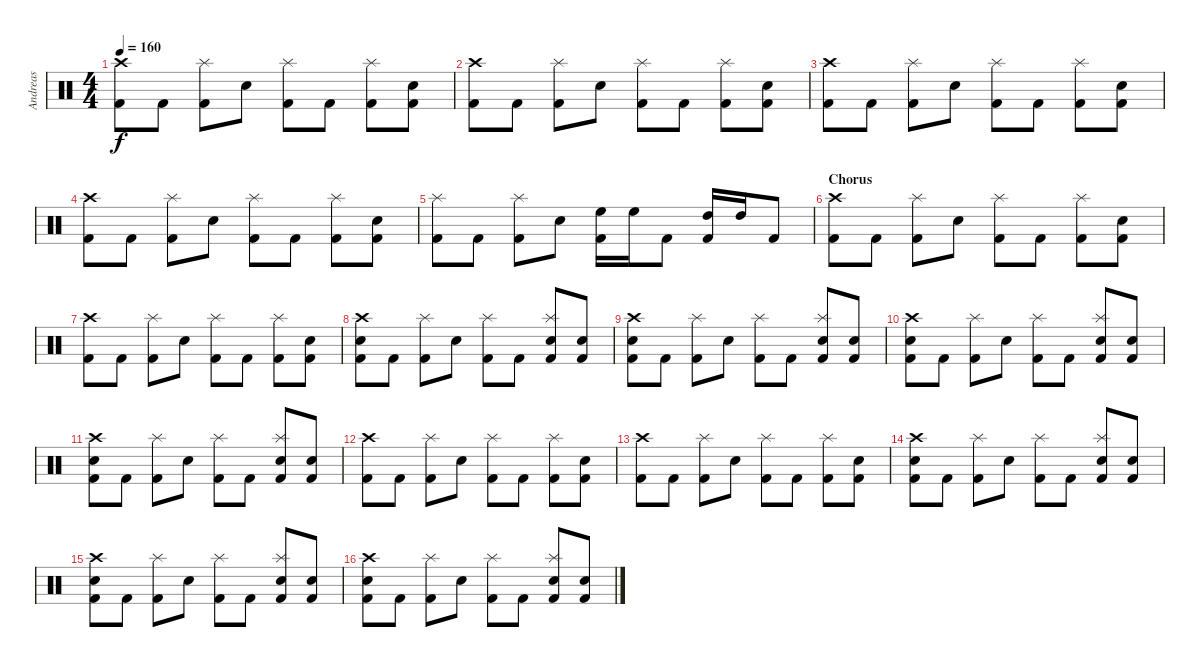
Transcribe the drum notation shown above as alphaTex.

\track ("Andreas" "Andreas") {instrument percussion}
\staff {score}
\articulation defaults
\ts (4 4)
\tempo 160
\clef neutral
\ks c
("Crash high (hit)" "Kick (hit) 2").8{dy f} "Kick (hit) 2".8 ("Splash (hit)" "Kick (hit) 2").8 "Snare (hit) 2".8 ("Splash (hit)" "Kick (hit) 2").8 "Kick (hit) 2".8 ("Splash (hit)" "Kick (hit) 2").8 ("Snare (hit) 2" "Kick (hit) 2").8 |
("Crash high (hit)" "Kick (hit) 2").8 "Kick (hit) 2".8 ("Splash (hit)" "Kick (hit) 2").8 "Snare (hit) 2".8 ("Splash (hit)" "Kick (hit) 2").8 "Kick (hit) 2".8 ("Splash (hit)" "Kick (hit) 2").8 ("Snare (hit) 2" "Kick (hit) 2").8 |
("Crash high (hit)" "Kick (hit) 2").8 "Kick (hit) 2".8 ("Splash (hit)" "Kick (hit) 2").8 "Snare (hit) 2".8 ("Splash (hit)" "Kick (hit) 2").8 "Kick (hit) 2".8 ("Splash (hit)" "Kick (hit) 2").8 ("Snare (hit) 2" "Kick (hit) 2").8 |
("Crash high (hit)" "Kick (hit) 2").8 "Kick (hit) 2".8 ("Splash (hit)" "Kick (hit) 2").8 "Snare (hit) 2".8 ("Splash (hit)" "Kick (hit) 2").8 "Kick (hit) 2".8 ("Splash (hit)" "Kick (hit) 2").8 ("Snare (hit) 2" "Kick (hit) 2").8 |
("Splash (hit)" "Kick (hit) 2").8 "Kick (hit) 2".8 ("Splash (hit)" "Kick (hit) 2").8 "Snare (hit) 2".8 ("High Floor Tom (hit)" "Kick (hit) 2").16 "High Floor Tom (hit)".16 "Kick (hit) 2".8 ("High Tom (hit)" "Kick (hit) 2").16 "High Tom (hit)".16 "Kick (hit) 2".8 |
\section ("" "Chorus")
("Crash high (hit)" "Kick (hit) 2").8 "Kick (hit) 2".8 ("Splash (hit)" "Kick (hit) 2").8 "Snare (hit) 2".8 ("Splash (hit)" "Kick (hit) 2").8 "Kick (hit) 2".8 ("Splash (hit)" "Kick (hit) 2").8 ("Snare (hit) 2" "Kick (hit) 2").8 |
("Crash high (hit)" "Kick (hit) 2").8 "Kick (hit) 2".8 ("Splash (hit)" "Kick (hit) 2").8 "Snare (hit) 2".8 ("Splash (hit)" "Kick (hit) 2").8 "Kick (hit) 2".8 ("Splash (hit)" "Kick (hit) 2").8 ("Snare (hit) 2" "Kick (hit) 2").8 |
("Crash high (hit)" "Snare (hit) 2" "Kick (hit) 2").8 "Kick (hit) 2".8 ("Splash (hit)" "Kick (hit) 2").8 "Snare (hit) 2".8 ("Splash (hit)" "Kick (hit) 2").8 "Kick (hit) 2".8 ("Splash (hit)" "Snare (hit) 2" "Kick (hit) 2").8 ("Snare (hit) 2" "Kick (hit) 2").8 |
("Crash high (hit)" "Snare (hit) 2" "Kick (hit) 2").8 "Kick (hit) 2".8 ("Splash (hit)" "Kick (hit) 2").8 "Snare (hit) 2".8 ("Splash (hit)" "Kick (hit) 2").8 "Kick (hit) 2".8 ("Splash (hit)" "Snare (hit) 2" "Kick (hit) 2").8 ("Snare (hit) 2" "Kick (hit) 2").8 |
("Crash high (hit)" "Snare (hit) 2" "Kick (hit) 2").8 "Kick (hit) 2".8 ("Splash (hit)" "Kick (hit) 2").8 "Snare (hit) 2".8 ("Splash (hit)" "Kick (hit) 2").8 "Kick (hit) 2".8 ("Splash (hit)" "Snare (hit) 2" "Kick (hit) 2").8 ("Snare (hit) 2" "Kick (hit) 2").8 |
("Crash high (hit)" "Snare (hit) 2" "Kick (hit) 2").8 "Kick (hit) 2".8 ("Splash (hit)" "Kick (hit) 2").8 "Snare (hit) 2".8 ("Splash (hit)" "Kick (hit) 2").8 "Kick (hit) 2".8 ("Splash (hit)" "Snare (hit) 2" "Kick (hit) 2").8 ("Snare (hit) 2" "Kick (hit) 2").8 |
("Crash high (hit)" "Kick (hit) 2").8 "Kick (hit) 2".8 ("Splash (hit)" "Kick (hit) 2").8 "Snare (hit) 2".8 ("Splash (hit)" "Kick (hit) 2").8 "Kick (hit) 2".8 ("Splash (hit)" "Kick (hit) 2").8 ("Snare (hit) 2" "Kick (hit) 2").8 |
("Crash high (hit)" "Kick (hit) 2").8 "Kick (hit) 2".8 ("Splash (hit)" "Kick (hit) 2").8 "Snare (hit) 2".8 ("Splash (hit)" "Kick (hit) 2").8 "Kick (hit) 2".8 ("Splash (hit)" "Kick (hit) 2").8 ("Snare (hit) 2" "Kick (hit) 2").8 |
("Crash high (hit)" "Snare (hit) 2" "Kick (hit) 2").8 "Kick (hit) 2".8 ("Splash (hit)" "Kick (hit) 2").8 "Snare (hit) 2".8 ("Splash (hit)" "Kick (hit) 2").8 "Kick (hit) 2".8 ("Splash (hit)" "Snare (hit) 2" "Kick (hit) 2").8 ("Snare (hit) 2" "Kick (hit) 2").8 |
("Crash high (hit)" "Snare (hit) 2" "Kick (hit) 2").8 "Kick (hit) 2".8 ("Splash (hit)" "Kick (hit) 2").8 "Snare (hit) 2".8 ("Splash (hit)" "Kick (hit) 2").8 "Kick (hit) 2".8 ("Splash (hit)" "Snare (hit) 2" "Kick (hit) 2").8 ("Snare (hit) 2" "Kick (hit) 2").8 |
("Crash high (hit)" "Snare (hit) 2" "Kick (hit) 2").8 "Kick (hit) 2".8 ("Splash (hit)" "Kick (hit) 2").8 "Snare (hit) 2".8 ("Splash (hit)" "Kick (hit) 2").8 "Kick (hit) 2".8 ("Splash (hit)" "Snare (hit) 2" "Kick (hit) 2").8 ("Snare (hit) 2" "Kick (hit) 2").8
